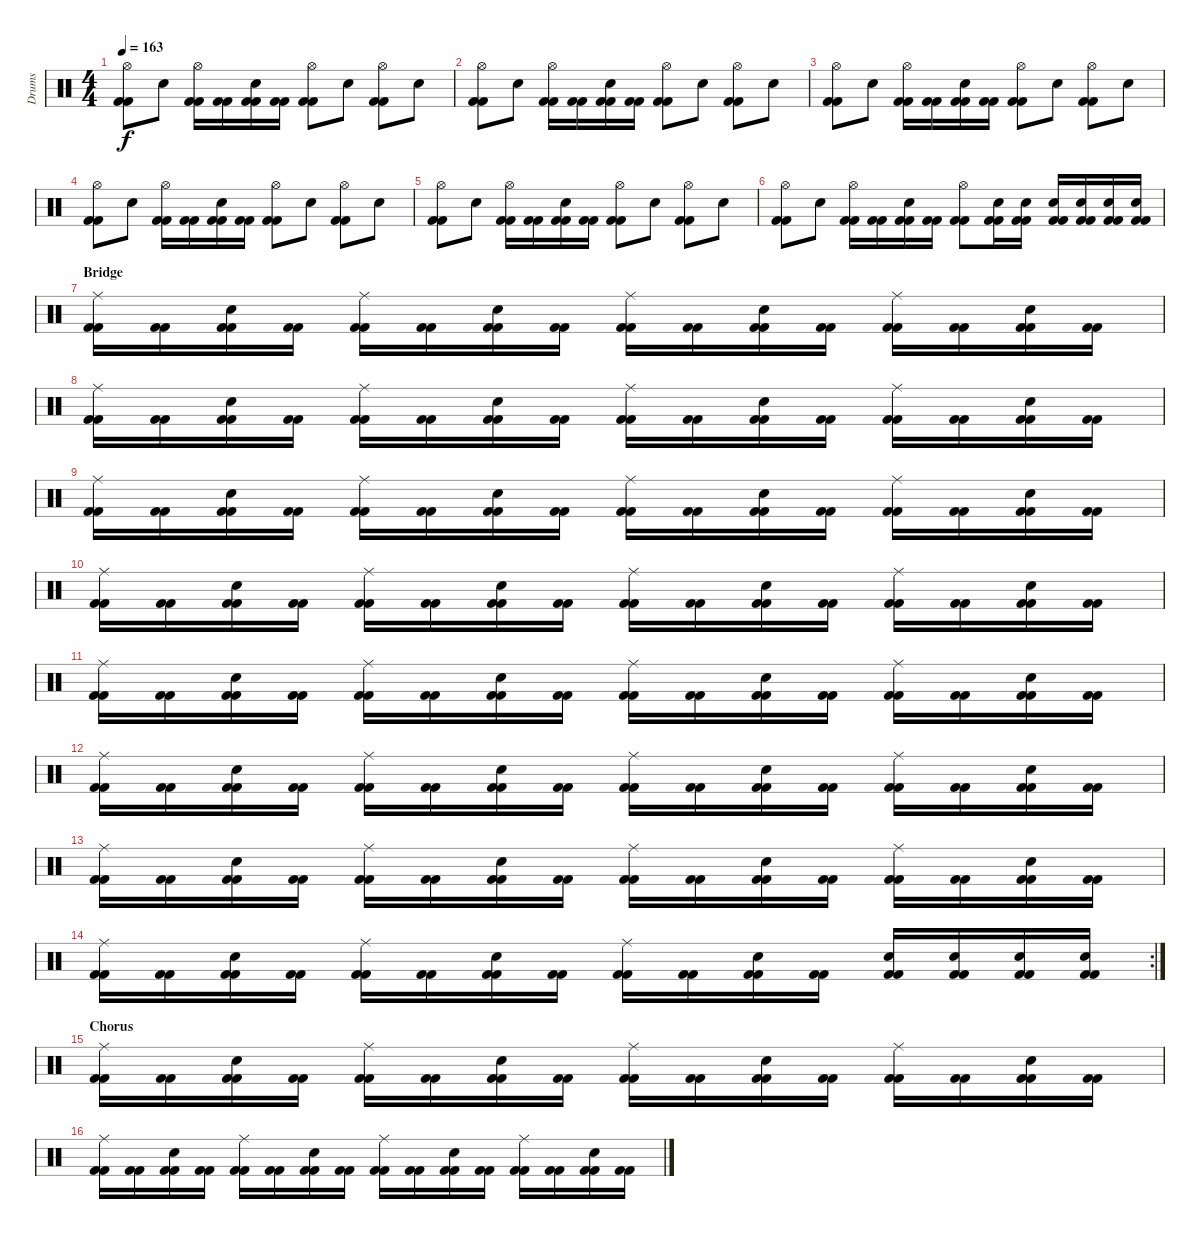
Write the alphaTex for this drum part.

\track ("Drums" "Drums") {instrument percussion}
\staff {score}
\articulation defaults
\ts (4 4)
\tempo 163
\clef neutral
\ks c
("Kick (hit) 2" "Kick (hit) 2" "Hi-Hat (open)").8{dy f} "Snare (hit) 2".8 ("Kick (hit) 2" "Kick (hit) 2" "Hi-Hat (open)").16 ("Kick (hit) 2" "Kick (hit) 2").16 ("Kick (hit) 2" "Kick (hit) 2" "Snare (hit) 2").16 ("Kick (hit) 2" "Kick (hit) 2").16 ("Kick (hit) 2" "Kick (hit) 2" "Hi-Hat (open)").8 "Snare (hit) 2".8 ("Kick (hit) 2" "Kick (hit) 2" "Hi-Hat (open)").8 "Snare (hit) 2".8 |
("Kick (hit) 2" "Kick (hit) 2" "Hi-Hat (open)").8 "Snare (hit) 2".8 ("Kick (hit) 2" "Kick (hit) 2" "Hi-Hat (open)").16 ("Kick (hit) 2" "Kick (hit) 2").16 ("Kick (hit) 2" "Kick (hit) 2" "Snare (hit) 2").16 ("Kick (hit) 2" "Kick (hit) 2").16 ("Kick (hit) 2" "Kick (hit) 2" "Hi-Hat (open)").8 "Snare (hit) 2".8 ("Kick (hit) 2" "Kick (hit) 2" "Hi-Hat (open)").8 "Snare (hit) 2".8 |
("Kick (hit) 2" "Kick (hit) 2" "Hi-Hat (open)").8 "Snare (hit) 2".8 ("Kick (hit) 2" "Kick (hit) 2" "Hi-Hat (open)").16 ("Kick (hit) 2" "Kick (hit) 2").16 ("Kick (hit) 2" "Kick (hit) 2" "Snare (hit) 2").16 ("Kick (hit) 2" "Kick (hit) 2").16 ("Kick (hit) 2" "Kick (hit) 2" "Hi-Hat (open)").8 "Snare (hit) 2".8 ("Kick (hit) 2" "Kick (hit) 2" "Hi-Hat (open)").8 "Snare (hit) 2".8 |
("Kick (hit) 2" "Kick (hit) 2" "Hi-Hat (open)").8 "Snare (hit) 2".8 ("Kick (hit) 2" "Kick (hit) 2" "Hi-Hat (open)").16 ("Kick (hit) 2" "Kick (hit) 2").16 ("Kick (hit) 2" "Kick (hit) 2" "Snare (hit) 2").16 ("Kick (hit) 2" "Kick (hit) 2").16 ("Kick (hit) 2" "Kick (hit) 2" "Hi-Hat (open)").8 "Snare (hit) 2".8 ("Kick (hit) 2" "Kick (hit) 2" "Hi-Hat (open)").8 "Snare (hit) 2".8 |
("Kick (hit) 2" "Kick (hit) 2" "Hi-Hat (open)").8 "Snare (hit) 2".8 ("Kick (hit) 2" "Kick (hit) 2" "Hi-Hat (open)").16 ("Kick (hit) 2" "Kick (hit) 2").16 ("Kick (hit) 2" "Kick (hit) 2" "Snare (hit) 2").16 ("Kick (hit) 2" "Kick (hit) 2").16 ("Kick (hit) 2" "Kick (hit) 2" "Hi-Hat (open)").8 "Snare (hit) 2".8 ("Kick (hit) 2" "Kick (hit) 2" "Hi-Hat (open)").8 "Snare (hit) 2".8 |
("Kick (hit) 2" "Kick (hit) 2" "Hi-Hat (open)").8 "Snare (hit) 2".8 ("Kick (hit) 2" "Kick (hit) 2" "Hi-Hat (open)").16 ("Kick (hit) 2" "Kick (hit) 2").16 ("Kick (hit) 2" "Kick (hit) 2" "Snare (hit) 2").16 ("Kick (hit) 2" "Kick (hit) 2").16 ("Kick (hit) 2" "Kick (hit) 2" "Hi-Hat (open)").8 ("Kick (hit) 2" "Kick (hit) 2" "Electric Snare (hit)").16 ("Kick (hit) 2" "Kick (hit) 2" "Electric Snare (hit)").16 ("Kick (hit) 2" "Kick (hit) 2" "Electric Snare (hit)").16 ("Kick (hit) 2" "Kick (hit) 2" "Electric Snare (hit)").16 ("Kick (hit) 2" "Kick (hit) 2" "Electric Snare (hit)").16 ("Kick (hit) 2" "Kick (hit) 2" "Electric Snare (hit)").16 |
\section ("" "Bridge")
("Kick (hit) 2" "Kick (hit) 2" "Ride (middle)").16 ("Kick (hit) 2" "Kick (hit) 2").16 ("Kick (hit) 2" "Kick (hit) 2" "Snare (hit) 2").16 ("Kick (hit) 2" "Kick (hit) 2").16 ("Kick (hit) 2" "Kick (hit) 2" "Ride (middle)").16 ("Kick (hit) 2" "Kick (hit) 2").16 ("Kick (hit) 2" "Kick (hit) 2" "Snare (hit) 2").16 ("Kick (hit) 2" "Kick (hit) 2").16 ("Kick (hit) 2" "Kick (hit) 2" "Ride (middle)").16 ("Kick (hit) 2" "Kick (hit) 2").16 ("Kick (hit) 2" "Kick (hit) 2" "Snare (hit) 2").16 ("Kick (hit) 2" "Kick (hit) 2").16 ("Kick (hit) 2" "Kick (hit) 2" "Ride (middle)").16 ("Kick (hit) 2" "Kick (hit) 2").16 ("Kick (hit) 2" "Kick (hit) 2" "Snare (hit) 2").16 ("Kick (hit) 2" "Kick (hit) 2").16 |
("Kick (hit) 2" "Kick (hit) 2" "Ride (middle)").16 ("Kick (hit) 2" "Kick (hit) 2").16 ("Kick (hit) 2" "Kick (hit) 2" "Snare (hit) 2").16 ("Kick (hit) 2" "Kick (hit) 2").16 ("Kick (hit) 2" "Kick (hit) 2" "Ride (middle)").16 ("Kick (hit) 2" "Kick (hit) 2").16 ("Kick (hit) 2" "Kick (hit) 2" "Snare (hit) 2").16 ("Kick (hit) 2" "Kick (hit) 2").16 ("Kick (hit) 2" "Kick (hit) 2" "Ride (middle)").16 ("Kick (hit) 2" "Kick (hit) 2").16 ("Kick (hit) 2" "Kick (hit) 2" "Snare (hit) 2").16 ("Kick (hit) 2" "Kick (hit) 2").16 ("Kick (hit) 2" "Kick (hit) 2" "Ride (middle)").16 ("Kick (hit) 2" "Kick (hit) 2").16 ("Kick (hit) 2" "Kick (hit) 2" "Snare (hit) 2").16 ("Kick (hit) 2" "Kick (hit) 2").16 |
("Kick (hit) 2" "Kick (hit) 2" "Ride (middle)").16 ("Kick (hit) 2" "Kick (hit) 2").16 ("Kick (hit) 2" "Kick (hit) 2" "Snare (hit) 2").16 ("Kick (hit) 2" "Kick (hit) 2").16 ("Kick (hit) 2" "Kick (hit) 2" "Ride (middle)").16 ("Kick (hit) 2" "Kick (hit) 2").16 ("Kick (hit) 2" "Kick (hit) 2" "Snare (hit) 2").16 ("Kick (hit) 2" "Kick (hit) 2").16 ("Kick (hit) 2" "Kick (hit) 2" "Ride (middle)").16 ("Kick (hit) 2" "Kick (hit) 2").16 ("Kick (hit) 2" "Kick (hit) 2" "Snare (hit) 2").16 ("Kick (hit) 2" "Kick (hit) 2").16 ("Kick (hit) 2" "Kick (hit) 2" "Ride (middle)").16 ("Kick (hit) 2" "Kick (hit) 2").16 ("Kick (hit) 2" "Kick (hit) 2" "Snare (hit) 2").16 ("Kick (hit) 2" "Kick (hit) 2").16 |
("Kick (hit) 2" "Kick (hit) 2" "Ride (middle)").16 ("Kick (hit) 2" "Kick (hit) 2").16 ("Kick (hit) 2" "Kick (hit) 2" "Snare (hit) 2").16 ("Kick (hit) 2" "Kick (hit) 2").16 ("Kick (hit) 2" "Kick (hit) 2" "Ride (middle)").16 ("Kick (hit) 2" "Kick (hit) 2").16 ("Kick (hit) 2" "Kick (hit) 2" "Snare (hit) 2").16 ("Kick (hit) 2" "Kick (hit) 2").16 ("Kick (hit) 2" "Kick (hit) 2" "Ride (middle)").16 ("Kick (hit) 2" "Kick (hit) 2").16 ("Kick (hit) 2" "Kick (hit) 2" "Snare (hit) 2").16 ("Kick (hit) 2" "Kick (hit) 2").16 ("Kick (hit) 2" "Kick (hit) 2" "Ride (middle)").16 ("Kick (hit) 2" "Kick (hit) 2").16 ("Kick (hit) 2" "Kick (hit) 2" "Snare (hit) 2").16 ("Kick (hit) 2" "Kick (hit) 2").16 |
("Kick (hit) 2" "Kick (hit) 2" "Ride (middle)").16 ("Kick (hit) 2" "Kick (hit) 2").16 ("Kick (hit) 2" "Kick (hit) 2" "Snare (hit) 2").16 ("Kick (hit) 2" "Kick (hit) 2").16 ("Kick (hit) 2" "Kick (hit) 2" "Ride (middle)").16 ("Kick (hit) 2" "Kick (hit) 2").16 ("Kick (hit) 2" "Kick (hit) 2" "Snare (hit) 2").16 ("Kick (hit) 2" "Kick (hit) 2").16 ("Kick (hit) 2" "Kick (hit) 2" "Ride (middle)").16 ("Kick (hit) 2" "Kick (hit) 2").16 ("Kick (hit) 2" "Kick (hit) 2" "Snare (hit) 2").16 ("Kick (hit) 2" "Kick (hit) 2").16 ("Kick (hit) 2" "Kick (hit) 2" "Ride (middle)").16 ("Kick (hit) 2" "Kick (hit) 2").16 ("Kick (hit) 2" "Kick (hit) 2" "Snare (hit) 2").16 ("Kick (hit) 2" "Kick (hit) 2").16 |
("Kick (hit) 2" "Kick (hit) 2" "Ride (middle)").16 ("Kick (hit) 2" "Kick (hit) 2").16 ("Kick (hit) 2" "Kick (hit) 2" "Snare (hit) 2").16 ("Kick (hit) 2" "Kick (hit) 2").16 ("Kick (hit) 2" "Kick (hit) 2" "Ride (middle)").16 ("Kick (hit) 2" "Kick (hit) 2").16 ("Kick (hit) 2" "Kick (hit) 2" "Snare (hit) 2").16 ("Kick (hit) 2" "Kick (hit) 2").16 ("Kick (hit) 2" "Kick (hit) 2" "Ride (middle)").16 ("Kick (hit) 2" "Kick (hit) 2").16 ("Kick (hit) 2" "Kick (hit) 2" "Snare (hit) 2").16 ("Kick (hit) 2" "Kick (hit) 2").16 ("Kick (hit) 2" "Kick (hit) 2" "Ride (middle)").16 ("Kick (hit) 2" "Kick (hit) 2").16 ("Kick (hit) 2" "Kick (hit) 2" "Snare (hit) 2").16 ("Kick (hit) 2" "Kick (hit) 2").16 |
("Kick (hit) 2" "Kick (hit) 2" "Ride (middle)").16 ("Kick (hit) 2" "Kick (hit) 2").16 ("Kick (hit) 2" "Kick (hit) 2" "Snare (hit) 2").16 ("Kick (hit) 2" "Kick (hit) 2").16 ("Kick (hit) 2" "Kick (hit) 2" "Ride (middle)").16 ("Kick (hit) 2" "Kick (hit) 2").16 ("Kick (hit) 2" "Kick (hit) 2" "Snare (hit) 2").16 ("Kick (hit) 2" "Kick (hit) 2").16 ("Kick (hit) 2" "Kick (hit) 2" "Ride (middle)").16 ("Kick (hit) 2" "Kick (hit) 2").16 ("Kick (hit) 2" "Kick (hit) 2" "Snare (hit) 2").16 ("Kick (hit) 2" "Kick (hit) 2").16 ("Kick (hit) 2" "Kick (hit) 2" "Ride (middle)").16 ("Kick (hit) 2" "Kick (hit) 2").16 ("Kick (hit) 2" "Kick (hit) 2" "Snare (hit) 2").16 ("Kick (hit) 2" "Kick (hit) 2").16 |
\rc 2
("Kick (hit) 2" "Kick (hit) 2" "Ride (middle)").16 ("Kick (hit) 2" "Kick (hit) 2").16 ("Kick (hit) 2" "Kick (hit) 2" "Snare (hit) 2").16 ("Kick (hit) 2" "Kick (hit) 2").16 ("Kick (hit) 2" "Kick (hit) 2" "Ride (middle)").16 ("Kick (hit) 2" "Kick (hit) 2").16 ("Kick (hit) 2" "Kick (hit) 2" "Snare (hit) 2").16 ("Kick (hit) 2" "Kick (hit) 2").16 ("Kick (hit) 2" "Kick (hit) 2" "Ride (middle)").16 ("Kick (hit) 2" "Kick (hit) 2").16 ("Kick (hit) 2" "Kick (hit) 2" "Electric Snare (hit)").16 ("Kick (hit) 2" "Kick (hit) 2").16 ("Kick (hit) 2" "Kick (hit) 2" "Electric Snare (hit)").16 ("Kick (hit) 2" "Kick (hit) 2" "Electric Snare (hit)").16 ("Kick (hit) 2" "Kick (hit) 2" "Electric Snare (hit)").16 ("Kick (hit) 2" "Kick (hit) 2" "Electric Snare (hit)").16 |
\section ("" "Chorus")
("Kick (hit) 2" "Kick (hit) 2" "Ride (middle)").16 ("Kick (hit) 2" "Kick (hit) 2").16 ("Kick (hit) 2" "Kick (hit) 2" "Snare (hit) 2").16 ("Kick (hit) 2" "Kick (hit) 2").16 ("Kick (hit) 2" "Kick (hit) 2" "Ride (middle)").16 ("Kick (hit) 2" "Kick (hit) 2").16 ("Kick (hit) 2" "Kick (hit) 2" "Snare (hit) 2").16 ("Kick (hit) 2" "Kick (hit) 2").16 ("Kick (hit) 2" "Kick (hit) 2" "Ride (middle)").16 ("Kick (hit) 2" "Kick (hit) 2").16 ("Kick (hit) 2" "Kick (hit) 2" "Snare (hit) 2").16 ("Kick (hit) 2" "Kick (hit) 2").16 ("Kick (hit) 2" "Kick (hit) 2" "Ride (middle)").16 ("Kick (hit) 2" "Kick (hit) 2").16 ("Kick (hit) 2" "Kick (hit) 2" "Snare (hit) 2").16 ("Kick (hit) 2" "Kick (hit) 2").16 |
("Kick (hit) 2" "Kick (hit) 2" "Ride (middle)").16 ("Kick (hit) 2" "Kick (hit) 2").16 ("Kick (hit) 2" "Kick (hit) 2" "Snare (hit) 2").16 ("Kick (hit) 2" "Kick (hit) 2").16 ("Kick (hit) 2" "Kick (hit) 2" "Ride (middle)").16 ("Kick (hit) 2" "Kick (hit) 2").16 ("Kick (hit) 2" "Kick (hit) 2" "Snare (hit) 2").16 ("Kick (hit) 2" "Kick (hit) 2").16 ("Kick (hit) 2" "Kick (hit) 2" "Ride (middle)").16 ("Kick (hit) 2" "Kick (hit) 2").16 ("Kick (hit) 2" "Kick (hit) 2" "Snare (hit) 2").16 ("Kick (hit) 2" "Kick (hit) 2").16 ("Kick (hit) 2" "Kick (hit) 2" "Ride (middle)").16 ("Kick (hit) 2" "Kick (hit) 2").16 ("Kick (hit) 2" "Kick (hit) 2" "Snare (hit) 2").16 ("Kick (hit) 2" "Kick (hit) 2").16
